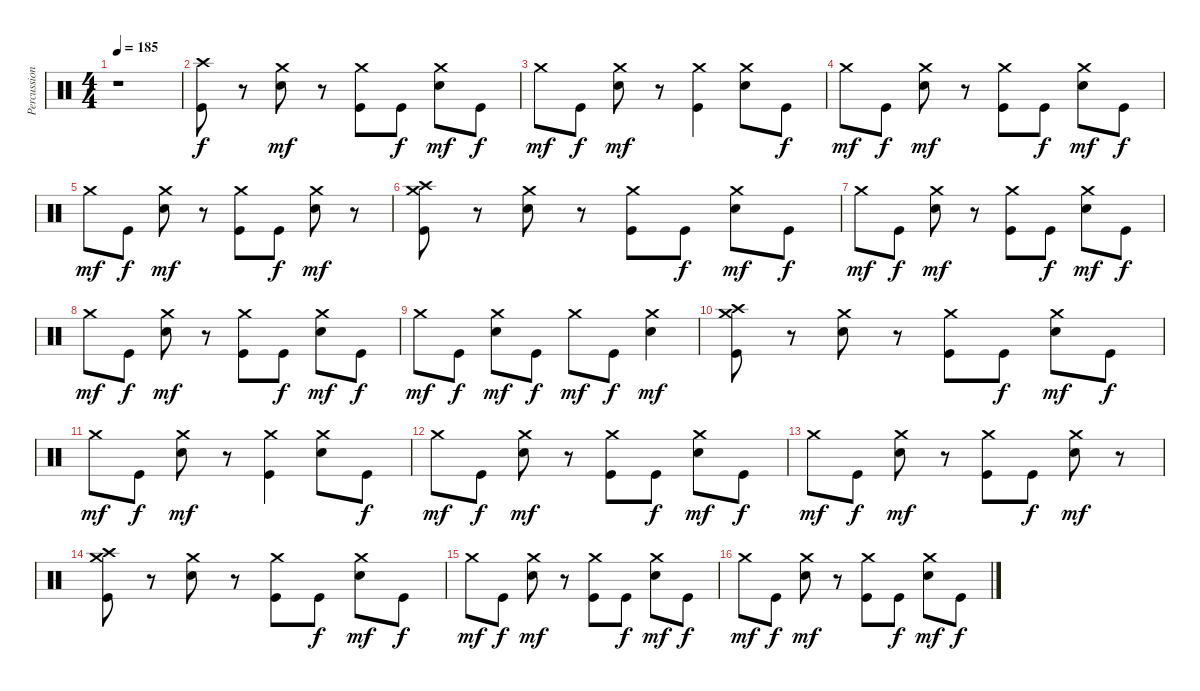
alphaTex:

\track ("Percussions" "Percussion") {instrument percussion}
\staff {score}
\articulation defaults
\ts (4 4)
\tempo 185
\clef neutral
\ks c
r.1{dy mf} |
("Kick (hit)" "Crash high (hit)").8{dy f} r.8 ("Electric Snare (hit)" "Crash medium (hit)").8{dy mf} r.8 ("Kick (hit)" "Crash medium (hit)").8 "Kick (hit)".8{dy f} ("Electric Snare (hit)" "Crash medium (hit)").8{dy mf} "Kick (hit)".8{dy f} |
"Crash medium (hit)".8{dy mf} "Kick (hit)".8{dy f} ("Electric Snare (hit)" "Crash medium (hit)").8{dy mf} r.8 ("Kick (hit)" "Crash medium (hit)").4 ("Electric Snare (hit)" "Crash medium (hit)").8 "Kick (hit)".8{dy f} |
"Crash medium (hit)".8{dy mf} "Kick (hit)".8{dy f} ("Electric Snare (hit)" "Crash medium (hit)").8{dy mf} r.8 ("Kick (hit)" "Crash medium (hit)").8 "Kick (hit)".8{dy f} ("Electric Snare (hit)" "Crash medium (hit)").8{dy mf} "Kick (hit)".8{dy f} |
"Crash medium (hit)".8{dy mf} "Kick (hit)".8{dy f} ("Electric Snare (hit)" "Crash medium (hit)").8{dy mf} r.8 ("Kick (hit)" "Crash medium (hit)").8 "Kick (hit)".8{dy f} ("Electric Snare (hit)" "Crash medium (hit)").8{dy mf} r.8 |
("Kick (hit)" "Crash medium (hit)" "Crash high (hit)").8 r.8 ("Electric Snare (hit)" "Crash medium (hit)").8 r.8 ("Kick (hit)" "Crash medium (hit)").8 "Kick (hit)".8{dy f} ("Electric Snare (hit)" "Crash medium (hit)").8{dy mf} "Kick (hit)".8{dy f} |
"Crash medium (hit)".8{dy mf} "Kick (hit)".8{dy f} ("Electric Snare (hit)" "Crash medium (hit)").8{dy mf} r.8 ("Kick (hit)" "Crash medium (hit)").8 "Kick (hit)".8{dy f} ("Electric Snare (hit)" "Crash medium (hit)").8{dy mf} "Kick (hit)".8{dy f} |
"Crash medium (hit)".8{dy mf} "Kick (hit)".8{dy f} ("Electric Snare (hit)" "Crash medium (hit)").8{dy mf} r.8 ("Kick (hit)" "Crash medium (hit)").8 "Kick (hit)".8{dy f} ("Electric Snare (hit)" "Crash medium (hit)").8{dy mf} "Kick (hit)".8{dy f} |
"Crash medium (hit)".8{dy mf} "Kick (hit)".8{dy f} ("Electric Snare (hit)" "Crash medium (hit)").8{dy mf} "Kick (hit)".8{dy f} "Crash medium (hit)".8{dy mf} "Kick (hit)".8{dy f} ("Electric Snare (hit)" "Crash medium (hit)").4{dy mf} |
("Kick (hit)" "Crash medium (hit)" "Crash high (hit)").8 r.8 ("Electric Snare (hit)" "Crash medium (hit)").8 r.8 ("Kick (hit)" "Crash medium (hit)").8 "Kick (hit)".8{dy f} ("Electric Snare (hit)" "Crash medium (hit)").8{dy mf} "Kick (hit)".8{dy f} |
"Crash medium (hit)".8{dy mf} "Kick (hit)".8{dy f} ("Electric Snare (hit)" "Crash medium (hit)").8{dy mf} r.8 ("Kick (hit)" "Crash medium (hit)").4 ("Electric Snare (hit)" "Crash medium (hit)").8 "Kick (hit)".8{dy f} |
"Crash medium (hit)".8{dy mf} "Kick (hit)".8{dy f} ("Electric Snare (hit)" "Crash medium (hit)").8{dy mf} r.8 ("Kick (hit)" "Crash medium (hit)").8 "Kick (hit)".8{dy f} ("Electric Snare (hit)" "Crash medium (hit)").8{dy mf} "Kick (hit)".8{dy f} |
"Crash medium (hit)".8{dy mf} "Kick (hit)".8{dy f} ("Electric Snare (hit)" "Crash medium (hit)").8{dy mf} r.8 ("Kick (hit)" "Crash medium (hit)").8 "Kick (hit)".8{dy f} ("Electric Snare (hit)" "Crash medium (hit)").8{dy mf} r.8 |
("Kick (hit)" "Crash medium (hit)" "Crash high (hit)").8 r.8 ("Electric Snare (hit)" "Crash medium (hit)").8 r.8 ("Kick (hit)" "Crash medium (hit)").8 "Kick (hit)".8{dy f} ("Electric Snare (hit)" "Crash medium (hit)").8{dy mf} "Kick (hit)".8{dy f} |
"Crash medium (hit)".8{dy mf} "Kick (hit)".8{dy f} ("Electric Snare (hit)" "Crash medium (hit)").8{dy mf} r.8 ("Kick (hit)" "Crash medium (hit)").8 "Kick (hit)".8{dy f} ("Electric Snare (hit)" "Crash medium (hit)").8{dy mf} "Kick (hit)".8{dy f} |
"Crash medium (hit)".8{dy mf} "Kick (hit)".8{dy f} ("Electric Snare (hit)" "Crash medium (hit)").8{dy mf} r.8 ("Kick (hit)" "Crash medium (hit)").8 "Kick (hit)".8{dy f} ("Electric Snare (hit)" "Crash medium (hit)").8{dy mf} "Kick (hit)".8{dy f}
